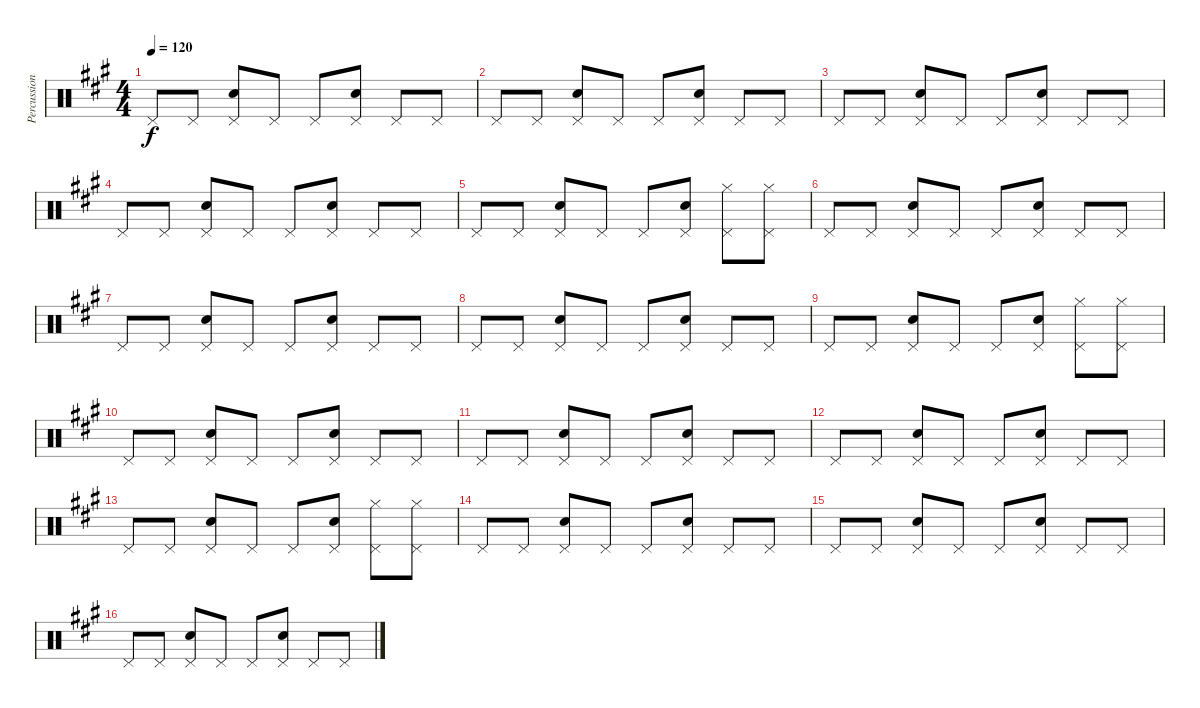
\track ("Percussion" "Percussion") {instrument percussion}
\staff {score}
\articulation defaults
\ts (4 4)
\tempo 120
\clef neutral
\ks a "Pedal Hi-Hat (hit)".8{dy f} "Pedal Hi-Hat (hit)".8
("Snare (hit) 2" "Pedal Hi-Hat (hit)").8 "Pedal Hi-Hat (hit)".8 "Pedal Hi-Hat (hit)".8 ("Snare (hit) 2" "Pedal Hi-Hat (hit)").8 "Pedal Hi-Hat (hit)".8 "Pedal Hi-Hat (hit)".8 |
"Pedal Hi-Hat (hit)".8 "Pedal Hi-Hat (hit)".8 ("Snare (hit) 2" "Pedal Hi-Hat (hit)").8 "Pedal Hi-Hat (hit)".8 "Pedal Hi-Hat (hit)".8 ("Snare (hit) 2" "Pedal Hi-Hat (hit)").8 "Pedal Hi-Hat (hit)".8 "Pedal Hi-Hat (hit)".8 |
"Pedal Hi-Hat (hit)".8 "Pedal Hi-Hat (hit)".8 ("Snare (hit) 2" "Pedal Hi-Hat (hit)").8 "Pedal Hi-Hat (hit)".8 "Pedal Hi-Hat (hit)".8 ("Snare (hit) 2" "Pedal Hi-Hat (hit)").8 "Pedal Hi-Hat (hit)".8 "Pedal Hi-Hat (hit)".8 |
"Pedal Hi-Hat (hit)".8 "Pedal Hi-Hat (hit)".8 ("Snare (hit) 2" "Pedal Hi-Hat (hit)").8 "Pedal Hi-Hat (hit)".8 "Pedal Hi-Hat (hit)".8 ("Snare (hit) 2" "Pedal Hi-Hat (hit)").8 "Pedal Hi-Hat (hit)".8 "Pedal Hi-Hat (hit)".8 |
"Pedal Hi-Hat (hit)".8 "Pedal Hi-Hat (hit)".8 ("Snare (hit) 2" "Pedal Hi-Hat (hit)").8 "Pedal Hi-Hat (hit)".8 "Pedal Hi-Hat (hit)".8 ("Snare (hit) 2" "Pedal Hi-Hat (hit)").8 ("Hi-Hat (closed)" "Pedal Hi-Hat (hit)").8 ("Hi-Hat (closed)" "Pedal Hi-Hat (hit)").8 |
"Pedal Hi-Hat (hit)".8 "Pedal Hi-Hat (hit)".8 ("Snare (hit) 2" "Pedal Hi-Hat (hit)").8 "Pedal Hi-Hat (hit)".8 "Pedal Hi-Hat (hit)".8 ("Snare (hit) 2" "Pedal Hi-Hat (hit)").8 "Pedal Hi-Hat (hit)".8 "Pedal Hi-Hat (hit)".8 |
"Pedal Hi-Hat (hit)".8 "Pedal Hi-Hat (hit)".8 ("Snare (hit) 2" "Pedal Hi-Hat (hit)").8 "Pedal Hi-Hat (hit)".8 "Pedal Hi-Hat (hit)".8 ("Snare (hit) 2" "Pedal Hi-Hat (hit)").8 "Pedal Hi-Hat (hit)".8 "Pedal Hi-Hat (hit)".8 |
"Pedal Hi-Hat (hit)".8 "Pedal Hi-Hat (hit)".8 ("Snare (hit) 2" "Pedal Hi-Hat (hit)").8 "Pedal Hi-Hat (hit)".8 "Pedal Hi-Hat (hit)".8 ("Snare (hit) 2" "Pedal Hi-Hat (hit)").8 "Pedal Hi-Hat (hit)".8 "Pedal Hi-Hat (hit)".8 |
"Pedal Hi-Hat (hit)".8 "Pedal Hi-Hat (hit)".8 ("Snare (hit) 2" "Pedal Hi-Hat (hit)").8 "Pedal Hi-Hat (hit)".8 "Pedal Hi-Hat (hit)".8 ("Snare (hit) 2" "Pedal Hi-Hat (hit)").8 ("Hi-Hat (closed)" "Pedal Hi-Hat (hit)").8 ("Hi-Hat (closed)" "Pedal Hi-Hat (hit)").8 |
"Pedal Hi-Hat (hit)".8 "Pedal Hi-Hat (hit)".8 ("Snare (hit) 2" "Pedal Hi-Hat (hit)").8 "Pedal Hi-Hat (hit)".8 "Pedal Hi-Hat (hit)".8 ("Snare (hit) 2" "Pedal Hi-Hat (hit)").8 "Pedal Hi-Hat (hit)".8 "Pedal Hi-Hat (hit)".8 |
"Pedal Hi-Hat (hit)".8 "Pedal Hi-Hat (hit)".8 ("Snare (hit) 2" "Pedal Hi-Hat (hit)").8 "Pedal Hi-Hat (hit)".8 "Pedal Hi-Hat (hit)".8 ("Snare (hit) 2" "Pedal Hi-Hat (hit)").8 "Pedal Hi-Hat (hit)".8 "Pedal Hi-Hat (hit)".8 |
"Pedal Hi-Hat (hit)".8 "Pedal Hi-Hat (hit)".8 ("Snare (hit) 2" "Pedal Hi-Hat (hit)").8 "Pedal Hi-Hat (hit)".8 "Pedal Hi-Hat (hit)".8 ("Snare (hit) 2" "Pedal Hi-Hat (hit)").8 "Pedal Hi-Hat (hit)".8 "Pedal Hi-Hat (hit)".8 |
"Pedal Hi-Hat (hit)".8 "Pedal Hi-Hat (hit)".8 ("Snare (hit) 2" "Pedal Hi-Hat (hit)").8 "Pedal Hi-Hat (hit)".8 "Pedal Hi-Hat (hit)".8 ("Snare (hit) 2" "Pedal Hi-Hat (hit)").8 ("Hi-Hat (closed)" "Pedal Hi-Hat (hit)").8 ("Hi-Hat (closed)" "Pedal Hi-Hat (hit)").8 |
"Pedal Hi-Hat (hit)".8 "Pedal Hi-Hat (hit)".8 ("Snare (hit) 2" "Pedal Hi-Hat (hit)").8 "Pedal Hi-Hat (hit)".8 "Pedal Hi-Hat (hit)".8 ("Snare (hit) 2" "Pedal Hi-Hat (hit)").8 "Pedal Hi-Hat (hit)".8 "Pedal Hi-Hat (hit)".8 |
"Pedal Hi-Hat (hit)".8 "Pedal Hi-Hat (hit)".8 ("Snare (hit) 2" "Pedal Hi-Hat (hit)").8 "Pedal Hi-Hat (hit)".8 "Pedal Hi-Hat (hit)".8 ("Snare (hit) 2" "Pedal Hi-Hat (hit)").8 "Pedal Hi-Hat (hit)".8 "Pedal Hi-Hat (hit)".8 |
"Pedal Hi-Hat (hit)".8 "Pedal Hi-Hat (hit)".8 ("Snare (hit) 2" "Pedal Hi-Hat (hit)").8 "Pedal Hi-Hat (hit)".8 "Pedal Hi-Hat (hit)".8 ("Snare (hit) 2" "Pedal Hi-Hat (hit)").8 "Pedal Hi-Hat (hit)".8 "Pedal Hi-Hat (hit)".8
